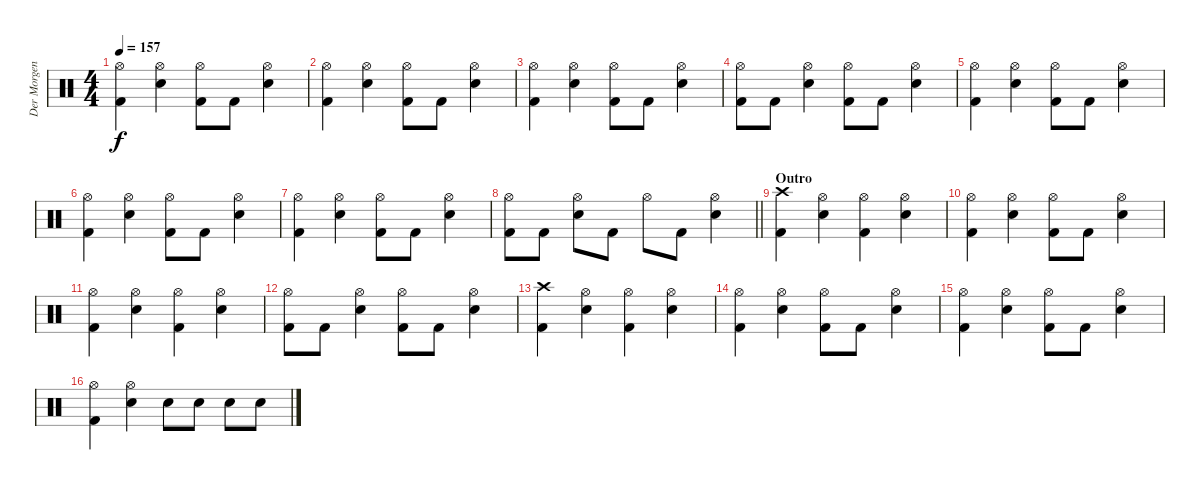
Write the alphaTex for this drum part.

\track ("Der Morgenstern" "Der Morgen") {instrument percussion}
\staff {score}
\articulation defaults
\ts (4 4)
\tempo 157
\clef neutral
\ks c
("Hi-Hat (open)" "Kick (hit) 2").4{dy f} ("Hi-Hat (open)" "Electric Snare (hit)").4 ("Hi-Hat (open)" "Kick (hit) 2").8 "Kick (hit) 2".8 ("Hi-Hat (open)" "Electric Snare (hit)").4 |
("Hi-Hat (open)" "Kick (hit) 2").4 ("Hi-Hat (open)" "Electric Snare (hit)").4 ("Hi-Hat (open)" "Kick (hit) 2").8 "Kick (hit) 2".8 ("Hi-Hat (open)" "Electric Snare (hit)").4 |
("Hi-Hat (open)" "Kick (hit) 2").4 ("Hi-Hat (open)" "Electric Snare (hit)").4 ("Hi-Hat (open)" "Kick (hit) 2").8 "Kick (hit) 2".8 ("Hi-Hat (open)" "Electric Snare (hit)").4 |
("Hi-Hat (open)" "Kick (hit) 2").8 "Kick (hit) 2".8 ("Hi-Hat (open)" "Electric Snare (hit)").4 ("Hi-Hat (open)" "Kick (hit) 2").8 "Kick (hit) 2".8 ("Hi-Hat (open)" "Electric Snare (hit)").4 |
("Hi-Hat (open)" "Kick (hit) 2").4 ("Hi-Hat (open)" "Electric Snare (hit)").4 ("Hi-Hat (open)" "Kick (hit) 2").8 "Kick (hit) 2".8 ("Hi-Hat (open)" "Electric Snare (hit)").4 |
("Hi-Hat (open)" "Kick (hit) 2").4 ("Hi-Hat (open)" "Electric Snare (hit)").4 ("Hi-Hat (open)" "Kick (hit) 2").8 "Kick (hit) 2".8 ("Hi-Hat (open)" "Electric Snare (hit)").4 |
("Hi-Hat (open)" "Kick (hit) 2").4 ("Hi-Hat (open)" "Electric Snare (hit)").4 ("Hi-Hat (open)" "Kick (hit) 2").8 "Kick (hit) 2".8 ("Hi-Hat (open)" "Electric Snare (hit)").4 |
\barLineRight lightlight
("Hi-Hat (open)" "Kick (hit) 2").8 "Kick (hit) 2".8 ("Hi-Hat (open)" "Electric Snare (hit)").8 "Kick (hit) 2".8 "Hi-Hat (open)".8 "Kick (hit) 2".8 ("Hi-Hat (open)" "Electric Snare (hit)").4 |
\section ("" "Outro")
("Crash high (hit)" "Kick (hit) 2").4 ("Hi-Hat (open)" "Electric Snare (hit)").4 ("Hi-Hat (open)" "Kick (hit) 2").4 ("Hi-Hat (open)" "Electric Snare (hit)").4 |
("Hi-Hat (open)" "Kick (hit) 2").4 ("Hi-Hat (open)" "Electric Snare (hit)").4 ("Hi-Hat (open)" "Kick (hit) 2").8 "Kick (hit) 2".8 ("Hi-Hat (open)" "Electric Snare (hit)").4 |
("Hi-Hat (open)" "Kick (hit) 2").4 ("Hi-Hat (open)" "Electric Snare (hit)").4 ("Hi-Hat (open)" "Kick (hit) 2").4 ("Hi-Hat (open)" "Electric Snare (hit)").4 |
("Hi-Hat (open)" "Kick (hit) 2").8 "Kick (hit) 2".8 ("Hi-Hat (open)" "Electric Snare (hit)").4 ("Hi-Hat (open)" "Kick (hit) 2").8 "Kick (hit) 2".8 ("Hi-Hat (open)" "Electric Snare (hit)").4 |
("Crash high (hit)" "Kick (hit) 2").4 ("Hi-Hat (open)" "Electric Snare (hit)").4 ("Hi-Hat (open)" "Kick (hit) 2").4 ("Hi-Hat (open)" "Electric Snare (hit)").4 |
("Hi-Hat (open)" "Kick (hit) 2").4 ("Hi-Hat (open)" "Electric Snare (hit)").4 ("Hi-Hat (open)" "Kick (hit) 2").8 "Kick (hit) 2".8 ("Hi-Hat (open)" "Electric Snare (hit)").4 |
("Hi-Hat (open)" "Kick (hit) 2").4 ("Hi-Hat (open)" "Electric Snare (hit)").4 ("Hi-Hat (open)" "Kick (hit) 2").8 "Kick (hit) 2".8 ("Hi-Hat (open)" "Electric Snare (hit)").4 |
("Hi-Hat (open)" "Kick (hit) 2").4 ("Hi-Hat (open)" "Electric Snare (hit)").4 "Electric Snare (hit)".8 "Electric Snare (hit)".8 "Electric Snare (hit)".8 "Electric Snare (hit)".8
